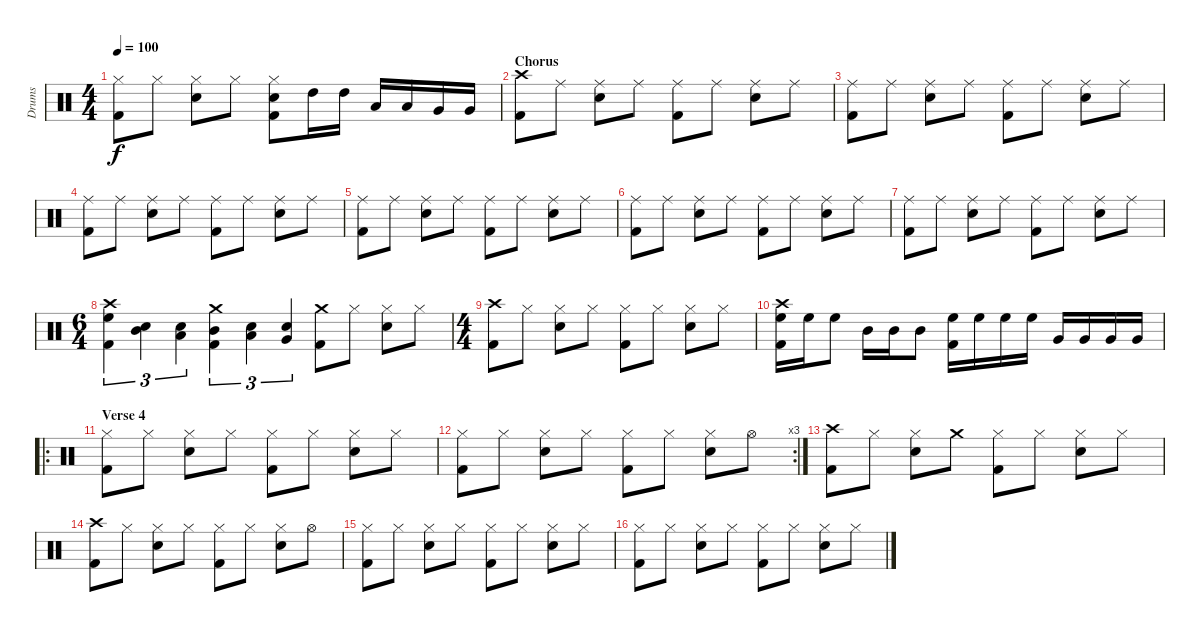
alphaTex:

\track ("Drums" "Drums") {instrument percussion}
\staff {score}
\articulation defaults
\ts (4 4)
\tempo 100
\clef neutral
\ks c
("Hi-Hat (closed)" "Kick (hit) 2").8{dy f} "Hi-Hat (closed)".8 ("Hi-Hat (closed)" "Snare (hit) 2").8 "Hi-Hat (closed)".8 ("Hi-Hat (closed)" "Snare (hit) 2" "Kick (hit) 2").8 "High Tom (hit)".16 "High Tom (hit)".16 "Low Tom (hit)".16 "Low Tom (hit)".16 "Very Low Tom (hit)".16 "Very Low Tom (hit)".16 |
\section ("" "Chorus")
("Crash high (hit)" "Kick (hit) 2").8 "Ride (middle)".8 ("Ride (middle)" "Snare (hit) 2").8 "Ride (middle)".8 ("Ride (middle)" "Kick (hit) 2").8 "Ride (middle)".8 ("Ride (middle)" "Snare (hit) 2").8 "Ride (middle)".8 |
("Ride (middle)" "Kick (hit) 2").8 "Ride (middle)".8 ("Ride (middle)" "Snare (hit) 2").8 "Ride (middle)".8 ("Ride (middle)" "Kick (hit) 2").8 "Ride (middle)".8 ("Ride (middle)" "Snare (hit) 2").8 "Ride (middle)".8 |
("Ride (middle)" "Kick (hit) 2").8 "Ride (middle)".8 ("Ride (middle)" "Snare (hit) 2").8 "Ride (middle)".8 ("Ride (middle)" "Kick (hit) 2").8 "Ride (middle)".8 ("Ride (middle)" "Snare (hit) 2").8 "Ride (middle)".8 |
("Ride (middle)" "Kick (hit) 2").8 "Ride (middle)".8 ("Ride (middle)" "Snare (hit) 2").8 "Ride (middle)".8 ("Ride (middle)" "Kick (hit) 2").8 "Ride (middle)".8 ("Ride (middle)" "Snare (hit) 2").8 "Ride (middle)".8 |
("Ride (middle)" "Kick (hit) 2").8 "Ride (middle)".8 ("Ride (middle)" "Snare (hit) 2").8 "Ride (middle)".8 ("Ride (middle)" "Kick (hit) 2").8 "Ride (middle)".8 ("Ride (middle)" "Snare (hit) 2").8 "Ride (middle)".8 |
("Ride (middle)" "Kick (hit) 2").8 "Ride (middle)".8 ("Ride (middle)" "Snare (hit) 2").8 "Ride (middle)".8 ("Ride (middle)" "Kick (hit) 2").8 "Ride (middle)".8 ("Ride (middle)" "Snare (hit) 2").8 "Ride (middle)".8 |
\ts (6 4)
("Crash high (hit)" "High Floor Tom (hit)" "Kick (hit) 2").4{tu (3 2)} ("Snare (hit) 2" "Mid Tom (hit)").4{tu (3 2)} ("Snare (hit) 2" "Low Tom (hit)").4{tu (3 2)} ("Crash medium (hit)" "Mid Tom (hit)" "Kick (hit) 2").4{tu (3 2)} ("Snare (hit) 2" "Low Tom (hit)").4{tu (3 2)} ("Snare (hit) 2" "Very Low Tom (hit)").4{tu (3 2)} ("Crash medium (hit)" "Kick (hit) 2").8 "Hi-Hat (closed)".8 ("Hi-Hat (closed)" "Snare (hit) 2").8 "Hi-Hat (closed)".8 |
\ts (4 4)
("Crash high (hit)" "Kick (hit) 2").8 "Hi-Hat (closed)".8 ("Hi-Hat (closed)" "Snare (hit) 2").8 "Hi-Hat (closed)".8 ("Hi-Hat (closed)" "Kick (hit) 2").8 "Hi-Hat (closed)".8 ("Hi-Hat (closed)" "Snare (hit) 2").8 "Hi-Hat (closed)".8 |
("Crash high (hit)" "High Floor Tom (hit)" "Kick (hit) 2").16 "High Floor Tom (hit)".16 "High Floor Tom (hit)".8 "Mid Tom (hit)".16 "Mid Tom (hit)".16 "Mid Tom (hit)".8 ("High Floor Tom (hit)" "Kick (hit) 2").16 "High Floor Tom (hit)".16 "High Floor Tom (hit)".16 "High Floor Tom (hit)".16 "Very Low Tom (hit)".16 "Very Low Tom (hit)".16 "Very Low Tom (hit)".16 "Very Low Tom (hit)".16 |
\ro
\section ("" "Verse 4")
("Hi-Hat (closed)" "Kick (hit) 2").8 "Hi-Hat (closed)".8 ("Hi-Hat (closed)" "Snare (hit) 2").8 "Hi-Hat (closed)".8 ("Hi-Hat (closed)" "Kick (hit) 2").8 "Hi-Hat (closed)".8 ("Hi-Hat (closed)" "Snare (hit) 2").8 "Hi-Hat (closed)".8 |
\rc 3
("Hi-Hat (closed)" "Kick (hit) 2").8 "Hi-Hat (closed)".8 ("Hi-Hat (closed)" "Snare (hit) 2").8 "Hi-Hat (closed)".8 ("Hi-Hat (closed)" "Kick (hit) 2").8 "Hi-Hat (closed)".8 ("Hi-Hat (closed)" "Snare (hit) 2").8 "Hi-Hat (open)".8 |
("Crash high (hit)" "Kick (hit) 2").8 "Hi-Hat (closed)".8 ("Hi-Hat (closed)" "Snare (hit) 2").8 "Crash medium (hit)".8 ("Hi-Hat (closed)" "Kick (hit) 2").8 "Hi-Hat (closed)".8 ("Hi-Hat (closed)" "Snare (hit) 2").8 "Hi-Hat (closed)".8 |
("Crash high (hit)" "Kick (hit) 2").8 "Hi-Hat (closed)".8 ("Hi-Hat (closed)" "Snare (hit) 2").8 "Hi-Hat (closed)".8 ("Hi-Hat (closed)" "Kick (hit) 2").8 "Hi-Hat (closed)".8 ("Hi-Hat (closed)" "Snare (hit) 2").8 "Hi-Hat (open)".8 |
("Hi-Hat (closed)" "Kick (hit) 2").8 "Hi-Hat (closed)".8 ("Hi-Hat (closed)" "Snare (hit) 2").8 "Hi-Hat (closed)".8 ("Hi-Hat (closed)" "Kick (hit) 2").8 "Hi-Hat (closed)".8 ("Hi-Hat (closed)" "Snare (hit) 2").8 "Hi-Hat (closed)".8 |
("Hi-Hat (closed)" "Kick (hit) 2").8 "Hi-Hat (closed)".8 ("Hi-Hat (closed)" "Snare (hit) 2").8 "Hi-Hat (closed)".8 ("Hi-Hat (closed)" "Kick (hit) 2").8 "Hi-Hat (closed)".8 ("Hi-Hat (closed)" "Snare (hit) 2").8 "Hi-Hat (closed)".8
